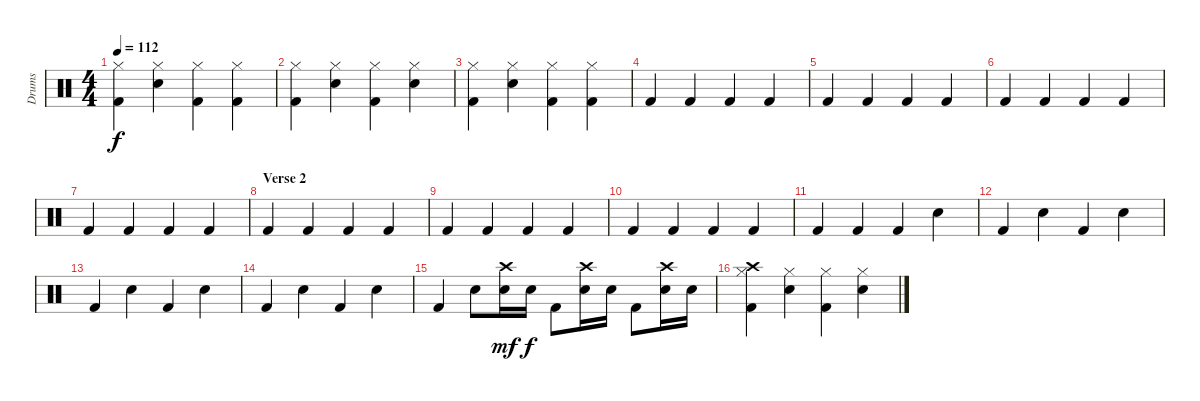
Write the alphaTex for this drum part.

\track ("Drums" "Drums") {instrument percussion}
\staff {score}
\articulation defaults
\ts (4 4)
\tempo 112
\clef neutral
\ks c
("Kick (hit) 2" "Hi-Hat (closed)").4{dy f} ("Hi-Hat (closed)" "Electric Snare (hit)").4 ("Kick (hit) 2" "Hi-Hat (closed)").4 ("Hi-Hat (closed)" "Kick (hit) 2").4 |
("Kick (hit) 2" "Hi-Hat (closed)").4 ("Hi-Hat (closed)" "Electric Snare (hit)").4 ("Kick (hit) 2" "Hi-Hat (closed)").4 ("Hi-Hat (closed)" "Electric Snare (hit)").4 |
("Kick (hit) 2" "Hi-Hat (closed)").4 ("Hi-Hat (closed)" "Electric Snare (hit)").4 ("Kick (hit) 2" "Hi-Hat (closed)").4 ("Kick (hit) 2" "Hi-Hat (closed)").4 |
"Kick (hit) 2".4 "Kick (hit) 2".4 "Kick (hit) 2".4 "Kick (hit) 2".4 |
"Kick (hit) 2".4 "Kick (hit) 2".4 "Kick (hit) 2".4 "Kick (hit) 2".4 |
"Kick (hit) 2".4 "Kick (hit) 2".4 "Kick (hit) 2".4 "Kick (hit) 2".4 |
"Kick (hit) 2".4 "Kick (hit) 2".4 "Kick (hit) 2".4 "Kick (hit) 2".4 |
\section ("" "Verse 2")
"Kick (hit) 2".4 "Kick (hit) 2".4 "Kick (hit) 2".4 "Kick (hit) 2".4 |
"Kick (hit) 2".4 "Kick (hit) 2".4 "Kick (hit) 2".4 "Kick (hit) 2".4 |
"Kick (hit) 2".4 "Kick (hit) 2".4 "Kick (hit) 2".4 "Kick (hit) 2".4 |
"Kick (hit) 2".4 "Kick (hit) 2".4 "Kick (hit) 2".4 "Electric Snare (hit)".4 |
"Kick (hit) 2".4 "Electric Snare (hit)".4 "Kick (hit) 2".4 "Electric Snare (hit)".4 |
"Kick (hit) 2".4 "Electric Snare (hit)".4 "Kick (hit) 2".4 "Electric Snare (hit)".4 |
"Kick (hit) 2".4 "Electric Snare (hit)".4 "Kick (hit) 2".4 "Electric Snare (hit)".4 |
"Kick (hit) 2".4 "Electric Snare (hit)".8 ("Electric Snare (hit)" "Crash high (hit)").16{dy mf} "Electric Snare (hit)".16{dy f} "Kick (hit) 2".8 ("Electric Snare (hit)" "Crash high (hit)").16 "Electric Snare (hit)".16 "Kick (hit) 2".8 ("Electric Snare (hit)" "Crash high (hit)").16 "Electric Snare (hit)".16 |
("Kick (hit) 2" "Hi-Hat (closed)" "Crash high (hit)").4 ("Hi-Hat (closed)" "Electric Snare (hit)").4 ("Kick (hit) 2" "Hi-Hat (closed)").4 ("Hi-Hat (closed)" "Electric Snare (hit)").4
